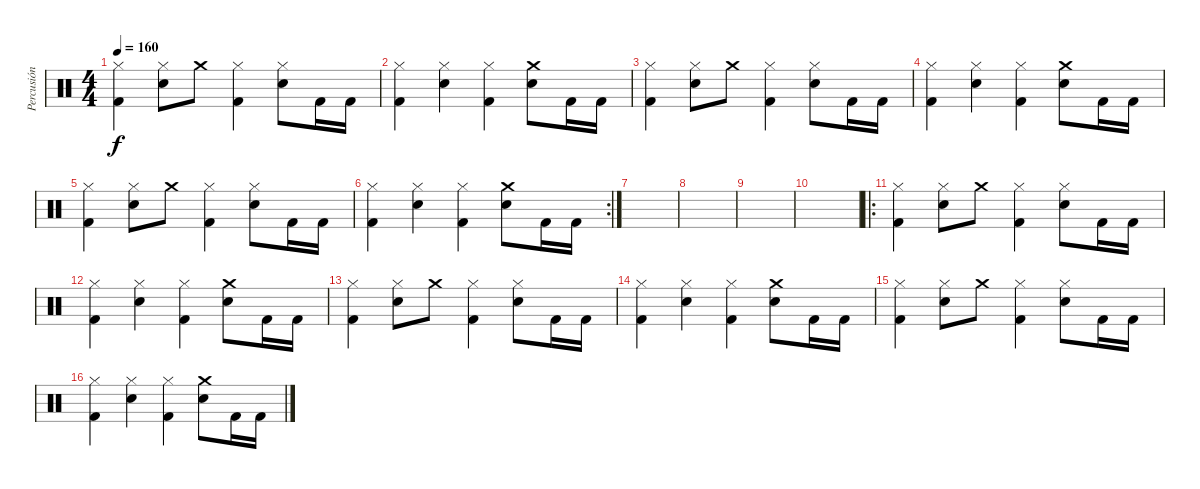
\track ("Percusión" "Percusión") {instrument percussion}
\staff {score}
\articulation defaults
\ts (4 4)
\tempo 160
\clef neutral
\ks c
("Hi-Hat (closed)" "Kick (hit) 2").4{dy f} ("Hi-Hat (closed)" "Electric Snare (hit)").8 "Crash medium (hit)".8 ("Hi-Hat (closed)" "Kick (hit) 2").4 ("Hi-Hat (closed)" "Electric Snare (hit)").8 "Kick (hit) 2".16 "Kick (hit) 2".16 |
("Hi-Hat (closed)" "Kick (hit) 2").4 ("Hi-Hat (closed)" "Electric Snare (hit)").4 ("Hi-Hat (closed)" "Kick (hit) 2").4 ("Crash medium (hit)" "Electric Snare (hit)").8 "Kick (hit) 2".16 "Kick (hit) 2".16 |
("Hi-Hat (closed)" "Kick (hit) 2").4 ("Hi-Hat (closed)" "Electric Snare (hit)").8 "Crash medium (hit)".8 ("Hi-Hat (closed)" "Kick (hit) 2").4 ("Hi-Hat (closed)" "Electric Snare (hit)").8 "Kick (hit) 2".16 "Kick (hit) 2".16 |
("Hi-Hat (closed)" "Kick (hit) 2").4 ("Hi-Hat (closed)" "Electric Snare (hit)").4 ("Hi-Hat (closed)" "Kick (hit) 2").4 ("Crash medium (hit)" "Electric Snare (hit)").8 "Kick (hit) 2".16 "Kick (hit) 2".16 |
("Hi-Hat (closed)" "Kick (hit) 2").4 ("Hi-Hat (closed)" "Electric Snare (hit)").8 "Crash medium (hit)".8 ("Hi-Hat (closed)" "Kick (hit) 2").4 ("Hi-Hat (closed)" "Electric Snare (hit)").8 "Kick (hit) 2".16 "Kick (hit) 2".16 |
\rc 2
("Hi-Hat (closed)" "Kick (hit) 2").4 ("Hi-Hat (closed)" "Electric Snare (hit)").4 ("Hi-Hat (closed)" "Kick (hit) 2").4 ("Crash medium (hit)" "Electric Snare (hit)").8 "Kick (hit) 2".16 "Kick (hit) 2".16 |
|
|
|
|
\ro
("Hi-Hat (closed)" "Kick (hit) 2").4 ("Hi-Hat (closed)" "Electric Snare (hit)").8 "Crash medium (hit)".8 ("Hi-Hat (closed)" "Kick (hit) 2").4 ("Hi-Hat (closed)" "Electric Snare (hit)").8 "Kick (hit) 2".16 "Kick (hit) 2".16 |
("Hi-Hat (closed)" "Kick (hit) 2").4 ("Hi-Hat (closed)" "Electric Snare (hit)").4 ("Hi-Hat (closed)" "Kick (hit) 2").4 ("Crash medium (hit)" "Electric Snare (hit)").8 "Kick (hit) 2".16 "Kick (hit) 2".16 |
("Hi-Hat (closed)" "Kick (hit) 2").4 ("Hi-Hat (closed)" "Electric Snare (hit)").8 "Crash medium (hit)".8 ("Hi-Hat (closed)" "Kick (hit) 2").4 ("Hi-Hat (closed)" "Electric Snare (hit)").8 "Kick (hit) 2".16 "Kick (hit) 2".16 |
("Hi-Hat (closed)" "Kick (hit) 2").4 ("Hi-Hat (closed)" "Electric Snare (hit)").4 ("Hi-Hat (closed)" "Kick (hit) 2").4 ("Crash medium (hit)" "Electric Snare (hit)").8 "Kick (hit) 2".16 "Kick (hit) 2".16 |
("Hi-Hat (closed)" "Kick (hit) 2").4 ("Hi-Hat (closed)" "Electric Snare (hit)").8 "Crash medium (hit)".8 ("Hi-Hat (closed)" "Kick (hit) 2").4 ("Hi-Hat (closed)" "Electric Snare (hit)").8 "Kick (hit) 2".16 "Kick (hit) 2".16 |
("Hi-Hat (closed)" "Kick (hit) 2").4 ("Hi-Hat (closed)" "Electric Snare (hit)").4 ("Hi-Hat (closed)" "Kick (hit) 2").4 ("Crash medium (hit)" "Electric Snare (hit)").8 "Kick (hit) 2".16 "Kick (hit) 2".16
